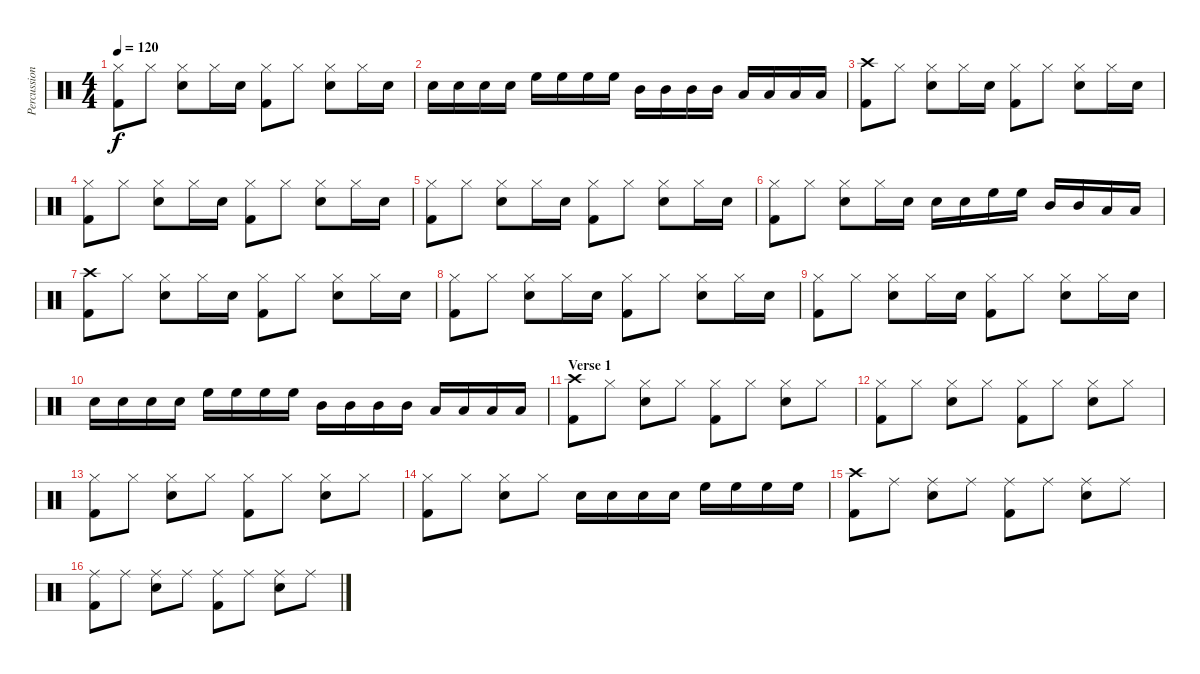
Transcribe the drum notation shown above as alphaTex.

\track ("Percussion" "Percussion") {instrument percussion}
\staff {score}
\articulation defaults
\ts (4 4)
\tempo 120
\clef neutral
\ks c
("Hi-Hat (closed)" "Kick (hit) 2").8{dy f} "Hi-Hat (closed)".8 ("Electric Snare (hit)" "Hi-Hat (closed)").8 "Hi-Hat (closed)".16 "Electric Snare (hit)".16 ("Hi-Hat (closed)" "Kick (hit) 2").8 "Hi-Hat (closed)".8 ("Electric Snare (hit)" "Hi-Hat (closed)").8 "Hi-Hat (closed)".16 "Electric Snare (hit)".16 |
"Electric Snare (hit)".16 "Electric Snare (hit)".16 "Electric Snare (hit)".16 "Electric Snare (hit)".16 "High Floor Tom (hit)".16 "High Floor Tom (hit)".16 "High Floor Tom (hit)".16 "High Floor Tom (hit)".16 "Mid Tom (hit)".16 "Mid Tom (hit)".16 "Mid Tom (hit)".16 "Mid Tom (hit)".16 "Low Tom (hit)".16 "Low Tom (hit)".16 "Low Tom (hit)".16 "Low Tom (hit)".16 |
("Crash high (hit)" "Kick (hit) 2").8 "Hi-Hat (closed)".8 ("Electric Snare (hit)" "Hi-Hat (closed)").8 "Hi-Hat (closed)".16 "Electric Snare (hit)".16 ("Hi-Hat (closed)" "Kick (hit) 2").8 "Hi-Hat (closed)".8 ("Electric Snare (hit)" "Hi-Hat (closed)").8 "Hi-Hat (closed)".16 "Electric Snare (hit)".16 |
("Hi-Hat (closed)" "Kick (hit) 2").8 "Hi-Hat (closed)".8 ("Electric Snare (hit)" "Hi-Hat (closed)").8 "Hi-Hat (closed)".16 "Electric Snare (hit)".16 ("Hi-Hat (closed)" "Kick (hit) 2").8 "Hi-Hat (closed)".8 ("Electric Snare (hit)" "Hi-Hat (closed)").8 "Hi-Hat (closed)".16 "Electric Snare (hit)".16 |
("Hi-Hat (closed)" "Kick (hit) 2").8 "Hi-Hat (closed)".8 ("Electric Snare (hit)" "Hi-Hat (closed)").8 "Hi-Hat (closed)".16 "Electric Snare (hit)".16 ("Hi-Hat (closed)" "Kick (hit) 2").8 "Hi-Hat (closed)".8 ("Electric Snare (hit)" "Hi-Hat (closed)").8 "Hi-Hat (closed)".16 "Electric Snare (hit)".16 |
("Hi-Hat (closed)" "Kick (hit) 2").8 "Hi-Hat (closed)".8 ("Electric Snare (hit)" "Hi-Hat (closed)").8 "Hi-Hat (closed)".16 "Electric Snare (hit)".16 "Electric Snare (hit)".16 "Electric Snare (hit)".16 "High Floor Tom (hit)".16 "High Floor Tom (hit)".16 "Mid Tom (hit)".16 "Mid Tom (hit)".16 "Low Tom (hit)".16 "Low Tom (hit)".16 |
("Crash high (hit)" "Kick (hit) 2").8 "Hi-Hat (closed)".8 ("Electric Snare (hit)" "Hi-Hat (closed)").8 "Hi-Hat (closed)".16 "Electric Snare (hit)".16 ("Hi-Hat (closed)" "Kick (hit) 2").8 "Hi-Hat (closed)".8 ("Electric Snare (hit)" "Hi-Hat (closed)").8 "Hi-Hat (closed)".16 "Electric Snare (hit)".16 |
("Hi-Hat (closed)" "Kick (hit) 2").8 "Hi-Hat (closed)".8 ("Electric Snare (hit)" "Hi-Hat (closed)").8 "Hi-Hat (closed)".16 "Electric Snare (hit)".16 ("Hi-Hat (closed)" "Kick (hit) 2").8 "Hi-Hat (closed)".8 ("Electric Snare (hit)" "Hi-Hat (closed)").8 "Hi-Hat (closed)".16 "Electric Snare (hit)".16 |
("Hi-Hat (closed)" "Kick (hit) 2").8 "Hi-Hat (closed)".8 ("Electric Snare (hit)" "Hi-Hat (closed)").8 "Hi-Hat (closed)".16 "Electric Snare (hit)".16 ("Hi-Hat (closed)" "Kick (hit) 2").8 "Hi-Hat (closed)".8 ("Electric Snare (hit)" "Hi-Hat (closed)").8 "Hi-Hat (closed)".16 "Electric Snare (hit)".16 |
"Electric Snare (hit)".16 "Electric Snare (hit)".16 "Electric Snare (hit)".16 "Electric Snare (hit)".16 "High Floor Tom (hit)".16 "High Floor Tom (hit)".16 "High Floor Tom (hit)".16 "High Floor Tom (hit)".16 "Mid Tom (hit)".16 "Mid Tom (hit)".16 "Mid Tom (hit)".16 "Mid Tom (hit)".16 "Low Tom (hit)".16 "Low Tom (hit)".16 "Low Tom (hit)".16 "Low Tom (hit)".16 |
\section ("" "Verse 1")
("Crash high (hit)" "Kick (hit) 2").8 "Hi-Hat (closed)".8 ("Hi-Hat (closed)" "Electric Snare (hit)").8 "Hi-Hat (closed)".8 ("Hi-Hat (closed)" "Kick (hit) 2").8 "Hi-Hat (closed)".8 ("Hi-Hat (closed)" "Electric Snare (hit)").8 "Hi-Hat (closed)".8 |
("Hi-Hat (closed)" "Kick (hit) 2").8 "Hi-Hat (closed)".8 ("Hi-Hat (closed)" "Electric Snare (hit)").8 "Hi-Hat (closed)".8 ("Hi-Hat (closed)" "Kick (hit) 2").8 "Hi-Hat (closed)".8 ("Hi-Hat (closed)" "Electric Snare (hit)").8 "Hi-Hat (closed)".8 |
("Hi-Hat (closed)" "Kick (hit) 2").8 "Hi-Hat (closed)".8 ("Hi-Hat (closed)" "Electric Snare (hit)").8 "Hi-Hat (closed)".8 ("Hi-Hat (closed)" "Kick (hit) 2").8 "Hi-Hat (closed)".8 ("Hi-Hat (closed)" "Electric Snare (hit)").8 "Hi-Hat (closed)".8 |
("Hi-Hat (closed)" "Kick (hit) 2").8 "Hi-Hat (closed)".8 ("Hi-Hat (closed)" "Electric Snare (hit)").8 "Hi-Hat (closed)".8 "Electric Snare (hit)".16 "Electric Snare (hit)".16 "Electric Snare (hit)".16 "Electric Snare (hit)".16 "High Floor Tom (hit)".16 "High Floor Tom (hit)".16 "High Floor Tom (hit)".16 "High Floor Tom (hit)".16 |
("Crash high (hit)" "Kick (hit) 2").8 "Ride (middle)".8 ("Ride (middle)" "Electric Snare (hit)").8 "Ride (middle)".8 ("Ride (middle)" "Kick (hit) 2").8 "Ride (middle)".8 ("Ride (middle)" "Electric Snare (hit)").8 "Ride (middle)".8 |
("Ride (middle)" "Kick (hit) 2").8 "Ride (middle)".8 ("Ride (middle)" "Electric Snare (hit)").8 "Ride (middle)".8 ("Ride (middle)" "Kick (hit) 2").8 "Ride (middle)".8 ("Ride (middle)" "Electric Snare (hit)").8 "Ride (middle)".8
